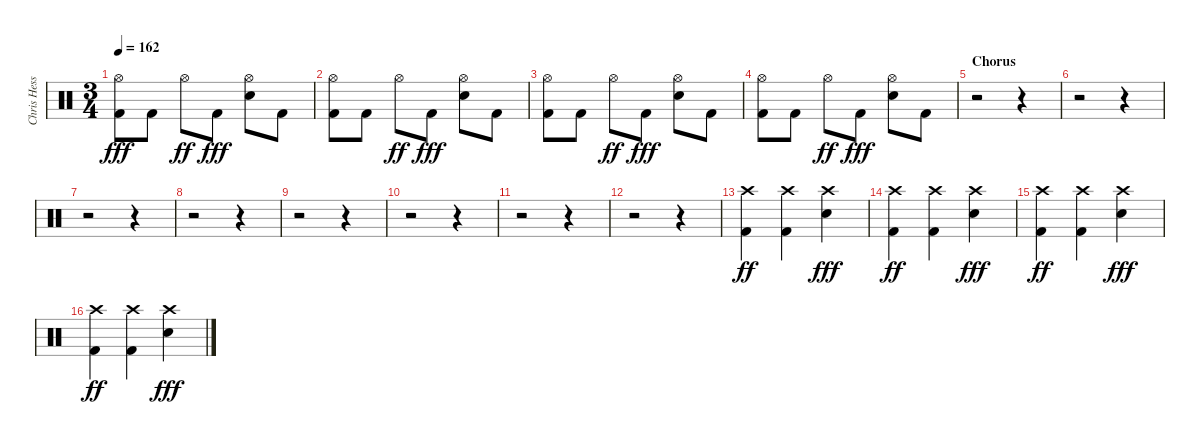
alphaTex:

\track ("Chris Hesse" "Chris Hess") {instrument percussion}
\staff {score}
\articulation defaults
\ts (3 4)
\tempo 162
\clef neutral
\ks c
("Hi-Hat (open)" "Kick (hit) 2").8{dy fff} "Kick (hit) 2".8 "Hi-Hat (open)".8{dy ff} "Kick (hit) 2".8{dy fff} ("Hi-Hat (open)" "Snare (hit) 2").8 "Kick (hit) 2".8 |
("Hi-Hat (open)" "Kick (hit) 2").8 "Kick (hit) 2".8 "Hi-Hat (open)".8{dy ff} "Kick (hit) 2".8{dy fff} ("Hi-Hat (open)" "Snare (hit) 2").8 "Kick (hit) 2".8 |
("Hi-Hat (open)" "Kick (hit) 2").8 "Kick (hit) 2".8 "Hi-Hat (open)".8{dy ff} "Kick (hit) 2".8{dy fff} ("Hi-Hat (open)" "Snare (hit) 2").8 "Kick (hit) 2".8 |
("Hi-Hat (open)" "Kick (hit) 2").8 "Kick (hit) 2".8 "Hi-Hat (open)".8{dy ff} "Kick (hit) 2".8{dy fff} ("Hi-Hat (open)" "Snare (hit) 2").8 "Kick (hit) 2".8 |
\section ("" "Chorus")
r.2 r.4 |
r.2 r.4 |
r.2 r.4 |
r.2 r.4 |
r.2 r.4 |
r.2 r.4 |
r.2 r.4 |
r.2 r.4 |
("Crash high (hit)" "Kick (hit) 2").4{dy ff} ("Crash high (hit)" "Kick (hit) 2").4 ("Crash high (hit)" "Snare (hit) 2").4{dy fff} |
("Crash high (hit)" "Kick (hit) 2").4{dy ff} ("Crash high (hit)" "Kick (hit) 2").4 ("Crash high (hit)" "Snare (hit) 2").4{dy fff} |
("Crash high (hit)" "Kick (hit) 2").4{dy ff} ("Crash high (hit)" "Kick (hit) 2").4 ("Crash high (hit)" "Snare (hit) 2").4{dy fff} |
("Crash high (hit)" "Kick (hit) 2").4{dy ff} ("Crash high (hit)" "Kick (hit) 2").4 ("Crash high (hit)" "Snare (hit) 2").4{dy fff}
